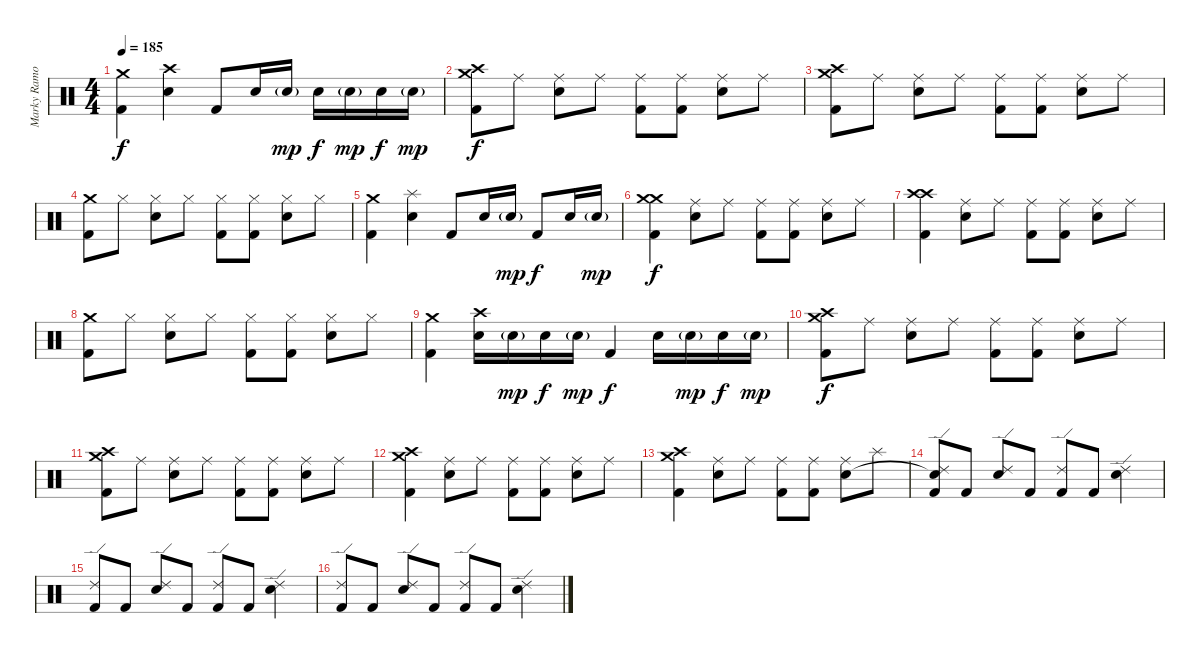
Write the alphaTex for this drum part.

\track ("Marky Ramone" "Marky Ramo") {instrument percussion}
\staff {score}
\articulation defaults
\ts (4 4)
\tempo 185
\clef neutral
\ks c
("Crash medium (hit)" "Kick (hit) 2").4{dy f} ("Crash high (hit)" "Electric Snare (hit)").4 "Kick (hit) 2".8 "Electric Snare (hit)".16 "Electric Snare (hit)"{g}.16{dy mp} "Electric Snare (hit)".16{dy f} "Electric Snare (hit)"{g}.16{dy mp} "Electric Snare (hit)".16{dy f} "Electric Snare (hit)"{g}.16{dy mp} |
("Crash medium (hit)" "Crash high (hit)" "Kick (hit) 2").8{dy f} "Ride (middle)".8 ("Ride (middle)" "Electric Snare (hit)").8 "Ride (middle)".8 ("Ride (middle)" "Kick (hit) 2").8 ("Ride (middle)" "Kick (hit) 2").8 ("Ride (middle)" "Electric Snare (hit)").8 "Ride (middle)".8 |
("Crash medium (hit)" "Crash high (hit)" "Kick (hit) 2").8 "Ride (middle)".8 ("Ride (middle)" "Electric Snare (hit)").8 "Ride (middle)".8 ("Ride (middle)" "Kick (hit) 2").8 ("Ride (middle)" "Kick (hit) 2").8 ("Ride (middle)" "Electric Snare (hit)").8 "Ride (middle)".8 |
("Crash medium (hit)" "Kick (hit) 2").8 "Hi-Hat (closed)".8 ("Hi-Hat (closed)" "Electric Snare (hit)").8 "Hi-Hat (closed)".8 ("Hi-Hat (closed)" "Kick (hit) 2").8 ("Hi-Hat (closed)" "Kick (hit) 2").8 ("Hi-Hat (closed)" "Electric Snare (hit)").8 "Hi-Hat (closed)".8 |
("Crash medium (hit)" "Kick (hit) 2").4 ("Splash (hit)" "Electric Snare (hit)").4 "Kick (hit) 2".8 "Electric Snare (hit)".16 "Electric Snare (hit)"{g}.16{dy mp} "Kick (hit) 2".8{dy f} "Electric Snare (hit)".16 "Electric Snare (hit)"{g}.16{dy mp} |
("Crash medium (hit)" "Crash medium (hit)" "Kick (hit) 2").4{dy f} ("Ride (middle)" "Electric Snare (hit)").8 "Ride (middle)".8 ("Ride (middle)" "Kick (hit) 2").8 ("Ride (middle)" "Kick (hit) 2").8 ("Ride (middle)" "Electric Snare (hit)").8 "Ride (middle)".8 |
("Crash high (hit)" "Crash high (hit)" "Kick (hit) 2").4 ("Ride (middle)" "Electric Snare (hit)").8 "Ride (middle)".8 ("Ride (middle)" "Kick (hit) 2").8 ("Ride (middle)" "Kick (hit) 2").8 ("Ride (middle)" "Electric Snare (hit)").8 "Ride (middle)".8 |
("Crash medium (hit)" "Kick (hit) 2").8 "Hi-Hat (closed)".8 ("Hi-Hat (closed)" "Electric Snare (hit)").8 "Hi-Hat (closed)".8 ("Hi-Hat (closed)" "Kick (hit) 2").8 ("Hi-Hat (closed)" "Kick (hit) 2").8 ("Hi-Hat (closed)" "Electric Snare (hit)").8 "Hi-Hat (closed)".8 |
("Crash medium (hit)" "Kick (hit) 2").4 ("Crash high (hit)" "Electric Snare (hit)").16 "Electric Snare (hit)"{g}.16{dy mp} "Electric Snare (hit)".16{dy f} "Electric Snare (hit)"{g}.16{dy mp} "Kick (hit) 2".4{dy f} "Electric Snare (hit)".16 "Electric Snare (hit)"{g}.16{dy mp} "Electric Snare (hit)".16{dy f} "Electric Snare (hit)"{g}.16{dy mp} |
("Crash medium (hit)" "Crash high (hit)" "Kick (hit) 2").8{dy f} "Ride (middle)".8 ("Ride (middle)" "Electric Snare (hit)").8 "Ride (middle)".8 ("Ride (middle)" "Kick (hit) 2").8 ("Ride (middle)" "Kick (hit) 2").8 ("Ride (middle)" "Electric Snare (hit)").8 "Ride (middle)".8 |
("Crash medium (hit)" "Crash high (hit)" "Kick (hit) 2").8 "Ride (middle)".8 ("Ride (middle)" "Electric Snare (hit)").8 "Ride (middle)".8 ("Ride (middle)" "Kick (hit) 2").8 ("Ride (middle)" "Kick (hit) 2").8 ("Ride (middle)" "Electric Snare (hit)").8 "Ride (middle)".8 |
("Crash medium (hit)" "Crash high (hit)" "Kick (hit) 2").4 ("Ride (middle)" "Electric Snare (hit)").8 "Ride (middle)".8 ("Ride (middle)" "Kick (hit) 2").8 ("Ride (middle)" "Kick (hit) 2").8 ("Ride (middle)" "Electric Snare (hit)").8 "Ride (middle)".8 |
("Crash medium (hit)" "Crash high (hit)" "Kick (hit) 2").4 ("Ride (middle)" "Electric Snare (hit)").8 "Ride (middle)".8 ("Ride (middle)" "Kick (hit) 2").8 ("Ride (middle)" "Kick (hit) 2").8 ("Ride (middle)" "Electric Snare (hit)").8 "Splash (hit)".8 |
("Ride (edge) 2" "Snare (hit)"{t} "Kick (hit) 2").8 "Kick (hit) 2".8 ("Ride (edge) 2" "Electric Snare (hit)").8 "Kick (hit) 2".8 ("Ride (edge) 2" "Kick (hit) 2").8 "Kick (hit) 2".8 ("Ride (edge) 2" "Electric Snare (hit)").4 |
("Ride (edge) 2" "Kick (hit) 2").8 "Kick (hit) 2".8 ("Ride (edge) 2" "Electric Snare (hit)").8 "Kick (hit) 2".8 ("Ride (edge) 2" "Kick (hit) 2").8 "Kick (hit) 2".8 ("Ride (edge) 2" "Electric Snare (hit)").4 |
("Ride (edge) 2" "Kick (hit) 2").8 "Kick (hit) 2".8 ("Ride (edge) 2" "Electric Snare (hit)").8 "Kick (hit) 2".8 ("Ride (edge) 2" "Kick (hit) 2").8 "Kick (hit) 2".8 ("Ride (edge) 2" "Electric Snare (hit)").4
